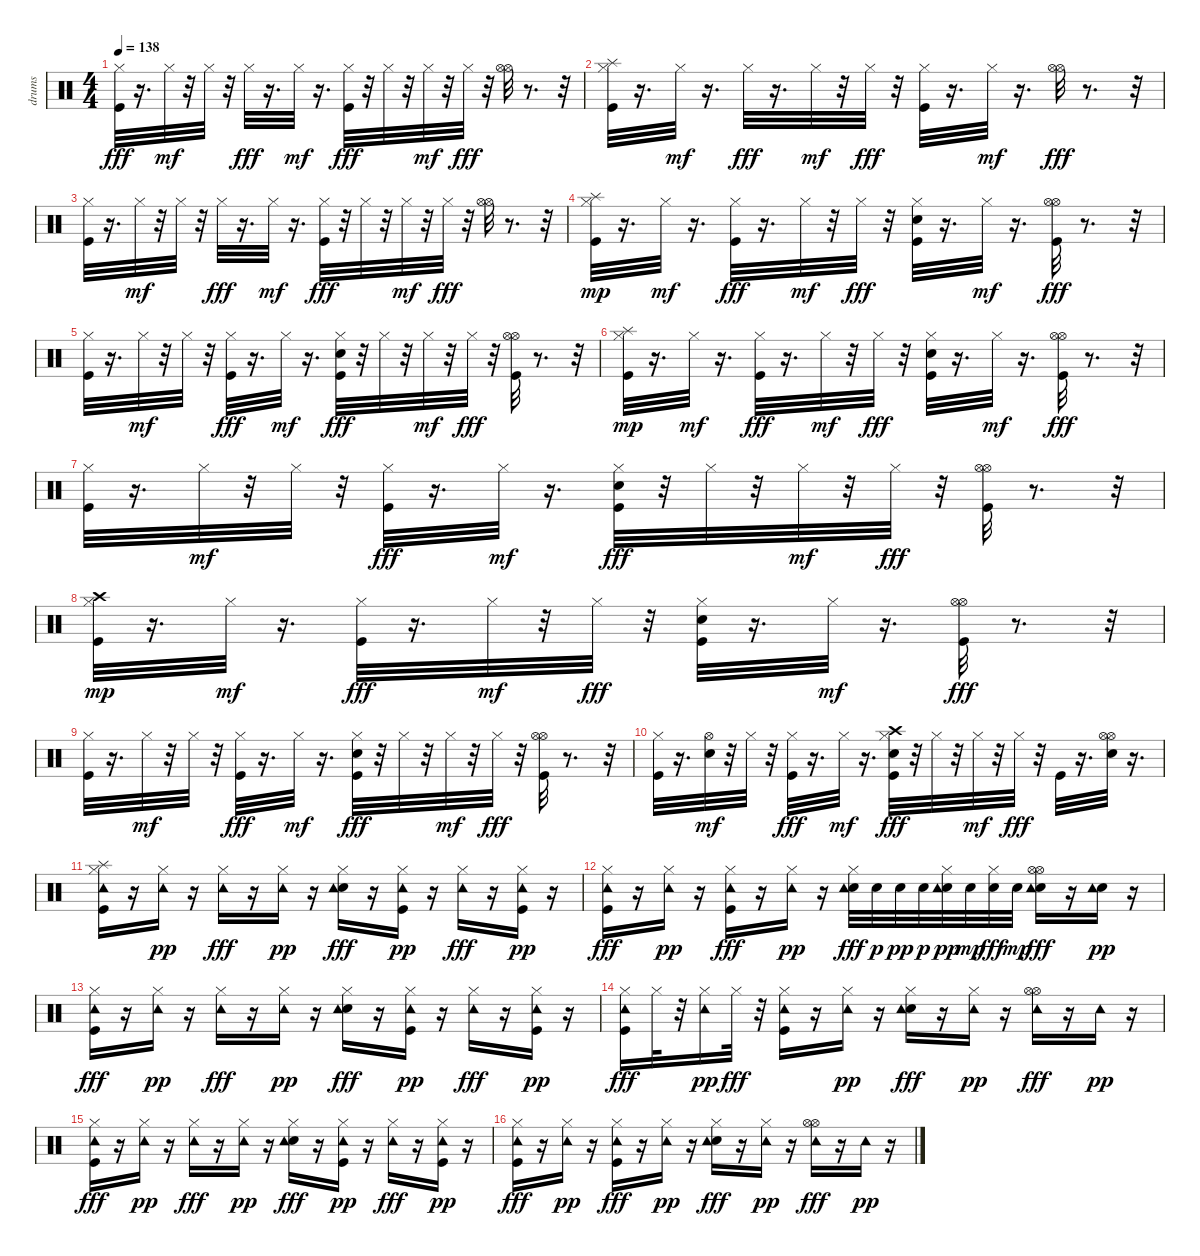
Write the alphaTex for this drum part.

\track ("drums" "drums") {instrument percussion}
\staff {score}
\articulation defaults
\ts (4 4)
\tempo 138
\clef neutral
\ks c
("Hi-Hat (closed)" "Kick (hit)").32{dy fff} r.16{d} "Hi-Hat (closed)".32{dy mf} r.32 "Hi-Hat (closed)".32 r.32 "Hi-Hat (closed)".32{dy fff} r.16{d} "Hi-Hat (closed)".32{dy mf} r.16{d} ("Kick (hit)" "Hi-Hat (closed)").32{dy fff} r.32 "Hi-Hat (closed)".32 r.32 "Hi-Hat (closed)".32{dy mf} r.32 "Hi-Hat (closed)".32{dy fff} r.32 ("Hi-Hat (open)" "Hi-Hat (open)").32 r.8{d} r.32 |
("Splash (hit)" "Kick (hit)" "Hi-Hat (closed)").32 r.16{d} "Hi-Hat (closed)".32{dy mf} r.16{d} "Hi-Hat (closed)".32{dy fff} r.16{d} "Hi-Hat (closed)".32{dy mf} r.32 "Hi-Hat (closed)".32{dy fff} r.32 ("Kick (hit)" "Hi-Hat (closed)").32 r.16{d} "Hi-Hat (closed)".32{dy mf} r.16{d} ("Hi-Hat (open)" "Hi-Hat (open)").32{dy fff} r.8{d} r.32 |
("Hi-Hat (closed)" "Kick (hit)").32 r.16{d} "Hi-Hat (closed)".32{dy mf} r.32 "Hi-Hat (closed)".32 r.32 "Hi-Hat (closed)".32{dy fff} r.16{d} "Hi-Hat (closed)".32{dy mf} r.16{d} ("Kick (hit)" "Hi-Hat (closed)").32{dy fff} r.32 "Hi-Hat (closed)".32 r.32 "Hi-Hat (closed)".32{dy mf} r.32 "Hi-Hat (closed)".32{dy fff} r.32 ("Hi-Hat (open)" "Hi-Hat (open)").32 r.8{d} r.32 |
("Kick (hit)" "Hi-Hat (closed)" "Splash (hit)").32{dy mp} r.16{d} "Hi-Hat (closed)".32{dy mf} r.16{d} ("Kick (hit)" "Hi-Hat (closed)").32{dy fff} r.16{d} "Hi-Hat (closed)".32{dy mf} r.32 "Hi-Hat (closed)".32{dy fff} r.32 ("Metronome (bell)" "Kick (hit)" "Hi-Hat (closed)").32 r.16{d} "Hi-Hat (closed)".32{dy mf} r.16{d} ("Kick (hit)" "Hi-Hat (open)" "Hi-Hat (open)").32{dy fff} r.8{d} r.32 |
("Kick (hit)" "Hi-Hat (closed)").32 r.16{d} "Hi-Hat (closed)".32{dy mf} r.32 "Hi-Hat (closed)".32 r.32 ("Kick (hit)" "Hi-Hat (closed)").32{dy fff} r.16{d} "Hi-Hat (closed)".32{dy mf} r.16{d} ("Metronome (bell)" "Kick (hit)" "Hi-Hat (closed)").32{dy fff} r.32 "Hi-Hat (closed)".32 r.32 "Hi-Hat (closed)".32{dy mf} r.32 "Hi-Hat (closed)".32{dy fff} r.32 ("Kick (hit)" "Hi-Hat (open)" "Hi-Hat (open)").32 r.8{d} r.32 |
("Kick (hit)" "Hi-Hat (closed)" "Splash (hit)").32{dy mp} r.16{d} "Hi-Hat (closed)".32{dy mf} r.16{d} ("Kick (hit)" "Hi-Hat (closed)").32{dy fff} r.16{d} "Hi-Hat (closed)".32{dy mf} r.32 "Hi-Hat (closed)".32{dy fff} r.32 ("Metronome (bell)" "Kick (hit)" "Hi-Hat (closed)").32 r.16{d} "Hi-Hat (closed)".32{dy mf} r.16{d} ("Kick (hit)" "Hi-Hat (open)" "Hi-Hat (open)").32{dy fff} r.8{d} r.32 |
("Kick (hit)" "Hi-Hat (closed)").32 r.16{d} "Hi-Hat (closed)".32{dy mf} r.32 "Hi-Hat (closed)".32 r.32 ("Kick (hit)" "Hi-Hat (closed)").32{dy fff} r.16{d} "Hi-Hat (closed)".32{dy mf} r.16{d} ("Metronome (bell)" "Kick (hit)" "Hi-Hat (closed)").32{dy fff} r.32 "Hi-Hat (closed)".32 r.32 "Hi-Hat (closed)".32{dy mf} r.32 "Hi-Hat (closed)".32{dy fff} r.32 ("Kick (hit)" "Hi-Hat (open)" "Hi-Hat (open)").32 r.8{d} r.32 |
("Kick (hit)" "Hi-Hat (closed)" "Crash high (hit)").32{dy mp} r.16{d} "Hi-Hat (closed)".32{dy mf} r.16{d} ("Kick (hit)" "Hi-Hat (closed)").32{dy fff} r.16{d} "Hi-Hat (closed)".32{dy mf} r.32 "Hi-Hat (closed)".32{dy fff} r.32 ("Metronome (bell)" "Kick (hit)" "Hi-Hat (closed)").32 r.16{d} "Hi-Hat (closed)".32{dy mf} r.16{d} ("Kick (hit)" "Hi-Hat (open)" "Hi-Hat (open)").32{dy fff} r.8{d} r.32 |
("Kick (hit)" "Hi-Hat (closed)").32 r.16{d} "Hi-Hat (closed)".32{dy mf} r.32 "Hi-Hat (closed)".32 r.32 ("Kick (hit)" "Hi-Hat (closed)").32{dy fff} r.16{d} "Hi-Hat (closed)".32{dy mf} r.16{d} ("Metronome (bell)" "Kick (hit)" "Hi-Hat (closed)").32{dy fff} r.32 "Hi-Hat (closed)".32 r.32 "Hi-Hat (closed)".32{dy mf} r.32 "Hi-Hat (closed)".32{dy fff} r.32 ("Kick (hit)" "Hi-Hat (open)" "Hi-Hat (open)").32 r.8{d} r.32 |
("Kick (hit)" "Hi-Hat (closed)").32 r.16{d} ("Metronome (bell)" "Hi-Hat (open)").32{dy mf} r.32 "Hi-Hat (closed)".32 r.32 ("Kick (hit)" "Hi-Hat (closed)").32{dy fff} r.16{d} "Hi-Hat (closed)".32{dy mf} r.16{d} ("Metronome (bell)" "Kick (hit)" "Hi-Hat (closed)" "Crash high (hit)").32{dy fff} r.32 "Hi-Hat (closed)".32 r.32 "Hi-Hat (closed)".32{dy mf} r.32 "Hi-Hat (closed)".32{dy fff} r.32 "Kick (hit)".32 r.16{d} ("Metronome (bell)" "Hi-Hat (open)" "Hi-Hat (open)").32 r.16{d} |
("Kick (hit)" "Hi-Hat (closed)" "Splash (hit)" "Tambourine (hit)").16 r.16 ("Hi-Hat (closed)" "Tambourine (hit)").16{dy pp} r.16 ("Hi-Hat (closed)" "Tambourine (hit)").16{dy fff} r.16 ("Hi-Hat (closed)" "Tambourine (hit)").16{dy pp} r.16 ("Metronome (bell)" "Hi-Hat (closed)" "Tambourine (hit)").16{dy fff} r.16 ("Kick (hit)" "Hi-Hat (closed)" "Tambourine (hit)").16{dy pp} r.16 ("Hi-Hat (closed)" "Tambourine (hit)").16{dy fff} r.16 ("Kick (hit)" "Hi-Hat (closed)" "Tambourine (hit)").16{dy pp} r.16 |
("Kick (hit)" "Hi-Hat (closed)" "Tambourine (hit)").16{dy fff} r.16 ("Hi-Hat (closed)" "Tambourine (hit)").16{dy pp} r.16 ("Kick (hit)" "Hi-Hat (closed)" "Tambourine (hit)").16{dy fff} r.16 ("Hi-Hat (closed)" "Tambourine (hit)").16{dy pp} r.16 ("Metronome (bell)" "Hi-Hat (closed)" "Tambourine (hit)").32{dy fff} "Metronome (bell)".32{dy p} "Metronome (bell)".32{dy pp} "Metronome (bell)".32{dy p} ("Metronome (bell)" "Hi-Hat (closed)" "Tambourine (hit)").32{dy pp} "Metronome (bell)".32{dy mp} ("Metronome (bell)" "Hi-Hat (closed)").32{dy fff} "Metronome (bell)".32{dy mp} ("Metronome (bell)" "Hi-Hat (open)" "Hi-Hat (open)" "Tambourine (hit)").16{dy fff} r.16 ("Metronome (bell)" "Tambourine (hit)").16{dy pp} r.16 |
("Kick (hit)" "Hi-Hat (closed)" "Tambourine (hit)").16{dy fff} r.16 ("Hi-Hat (closed)" "Tambourine (hit)").16{dy pp} r.16 ("Hi-Hat (closed)" "Tambourine (hit)").16{dy fff} r.16 ("Hi-Hat (closed)" "Tambourine (hit)").16{dy pp} r.16 ("Metronome (bell)" "Hi-Hat (closed)" "Tambourine (hit)").16{dy fff} r.16 ("Kick (hit)" "Hi-Hat (closed)" "Tambourine (hit)").16{dy pp} r.16 ("Hi-Hat (closed)" "Tambourine (hit)").16{dy fff} r.16 ("Kick (hit)" "Hi-Hat (closed)" "Tambourine (hit)").16{dy pp} r.16 |
("Kick (hit)" "Hi-Hat (closed)" "Tambourine (hit)").16{dy fff} "Hi-Hat (closed)".32 r.32 ("Hi-Hat (closed)" "Tambourine (hit)").16{dy pp} "Hi-Hat (closed)".32{dy fff} r.32 ("Kick (hit)" "Hi-Hat (closed)" "Tambourine (hit)").16 r.16 ("Hi-Hat (closed)" "Tambourine (hit)").16{dy pp} r.16 ("Metronome (bell)" "Hi-Hat (closed)" "Tambourine (hit)").16{dy fff} r.16 ("Hi-Hat (closed)" "Tambourine (hit)").16{dy pp} r.16 ("Hi-Hat (open)" "Hi-Hat (open)" "Tambourine (hit)").16{dy fff} r.16 "Tambourine (hit)".16{dy pp} r.16 |
("Kick (hit)" "Hi-Hat (closed)" "Tambourine (hit)").16{dy fff} r.16 ("Hi-Hat (closed)" "Tambourine (hit)").16{dy pp} r.16 ("Hi-Hat (closed)" "Tambourine (hit)").16{dy fff} r.16 ("Hi-Hat (closed)" "Tambourine (hit)").16{dy pp} r.16 ("Metronome (bell)" "Hi-Hat (closed)" "Tambourine (hit)").16{dy fff} r.16 ("Kick (hit)" "Hi-Hat (closed)" "Tambourine (hit)").16{dy pp} r.16 ("Hi-Hat (closed)" "Tambourine (hit)").16{dy fff} r.16 ("Kick (hit)" "Hi-Hat (closed)" "Tambourine (hit)").16{dy pp} r.16 |
("Kick (hit)" "Hi-Hat (closed)" "Tambourine (hit)").16{dy fff} r.16 ("Hi-Hat (closed)" "Tambourine (hit)").16{dy pp} r.16 ("Kick (hit)" "Hi-Hat (closed)" "Tambourine (hit)").16{dy fff} r.16 ("Hi-Hat (closed)" "Tambourine (hit)").16{dy pp} r.16 ("Metronome (bell)" "Hi-Hat (closed)" "Tambourine (hit)").16{dy fff} r.16 ("Hi-Hat (closed)" "Tambourine (hit)").16{dy pp} r.16 ("Hi-Hat (open)" "Hi-Hat (open)" "Tambourine (hit)").16{dy fff} r.16 "Tambourine (hit)".16{dy pp} r.16
